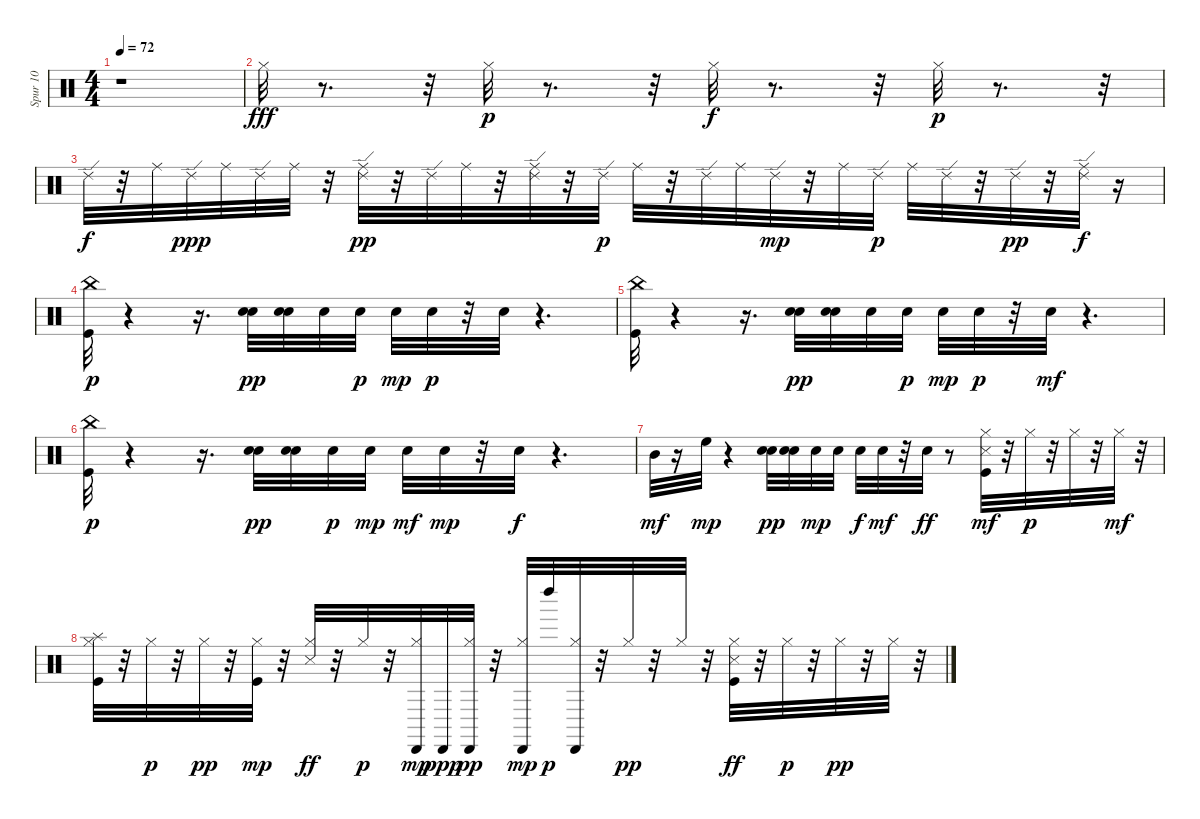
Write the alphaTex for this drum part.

\track ("Spur 10" "Spur 10") {instrument percussion}
\staff {score}
\articulation defaults
\ts (4 4)
\tempo 72
\clef neutral
\ks c
r.1{dy fff} |
"Hi-Hat (closed)".32 r.8{d} r.32 "Hi-Hat (closed)".32{dy p} r.8{d} r.32 "Hi-Hat (closed)".32{dy f} r.8{d} r.32 "Hi-Hat (closed)".32{dy p} r.8{d} r.32 |
"Ride (edge) 2".32{dy f} r.32 "Ride (middle)".32 "Ride (edge) 2".32{dy ppp} "Ride (middle)".32 "Ride (edge) 2".32 "Ride (middle)".32 r.32 ("Ride (edge) 2" "Ride (middle)").32{dy pp} r.32 "Ride (edge) 2".32 "Ride (middle)".32 r.32 ("Ride (edge) 2" "Ride (middle)").32 r.32 "Ride (edge) 2".32{dy p} "Ride (middle)".32 r.32 "Ride (edge) 2".32 "Ride (middle)".32 "Ride (edge) 2".32{dy mp} r.32 "Ride (middle)".32 "Ride (edge) 2".32{dy p} "Ride (middle)".32 "Ride (edge) 2".32 r.32 "Ride (edge) 2".32{dy pp} r.32 ("Ride (middle)" "Ride (edge) 2").32{dy f} r.16 |
("Kick (hit)" "China (hit)").32{dy p} r.4 r.16{d} ("Snare (hit) 2" "Snare (hit) 2").32{dy pp} ("Snare (hit) 2" "Snare (hit) 2").32 "Snare (hit) 2".32 "Snare (hit) 2".32{dy p} "Snare (hit) 2".32{dy mp} "Snare (hit) 2".32{dy p} r.32 "Snare (hit) 2".32 r.4{d} |
("Kick (hit)" "China (hit)").32 r.4 r.16{d} ("Snare (hit) 2" "Snare (hit) 2").32{dy pp} ("Snare (hit) 2" "Snare (hit) 2").32 "Snare (hit) 2".32 "Snare (hit) 2".32{dy p} "Snare (hit) 2".32{dy mp} "Snare (hit) 2".32{dy p} r.32 "Snare (hit) 2".32{dy mf} r.4{d} |
("Kick (hit)" "China (hit)").32{dy p} r.4 r.16{d} ("Snare (hit) 2" "Snare (hit) 2").32{dy pp} ("Snare (hit) 2" "Snare (hit) 2").32 "Snare (hit) 2".32{dy p} "Snare (hit) 2".32{dy mp} "Snare (hit) 2".32{dy mf} "Snare (hit) 2".32{dy mp} r.32 "Snare (hit) 2".32{dy f} r.4{d} |
"Mid Tom (hit)".32{dy mf} r.16 "High Floor Tom (hit)".32{dy mp} r.4 ("Snare (hit) 2" "Snare (hit) 2").32{dy pp} ("Snare (hit) 2" "Snare (hit) 2").32 "Snare (hit) 2".32{dy mp} "Snare (hit) 2".32 "Snare (hit) 2".32{dy f} "Snare (hit) 2".32{dy mf} r.32 "Snare (hit) 2".32{dy ff} r.8 ("Kick (hit)" "Snare (side stick) 3" "Hi-Hat (closed)").32{dy mf} r.32 "Hi-Hat (closed)".32{dy p} r.32 "Hi-Hat (closed)".32 r.32 "Hi-Hat (closed)".32{dy mf} r.32 |
("Kick (hit)" "Hi-Hat (closed)" "Splash (hit)").32 r.32 "Hi-Hat (closed)".32{dy p} r.32 "Hi-Hat (closed)".32{dy pp} r.32 ("Hi-Hat (closed)" "Kick (hit)").32{dy mp} r.32 ("Snare (side stick) 3" "Hi-Hat (closed)").32{dy ff} r.32 "Hi-Hat (closed)".32{dy p} r.32 ("Hi-Hat (closed)" "Cabasa (hit)").32{dy mp} "Cabasa (hit)".32{dy ppp} ("Hi-Hat (closed)" "Cabasa (hit)").32{dy pp} r.32 ("Cabasa (hit)" "Hi-Hat (closed)").32{dy mp} "Left Maraca (hit)".32{dy p} ("Cabasa (hit)" "Hi-Hat (closed)").32 r.32 "Hi-Hat (closed)".32{dy pp} r.32 "Hi-Hat (closed)".32 r.32 ("Snare (side stick) 3" "Kick (hit)" "Hi-Hat (closed)").32{dy ff} r.32 "Hi-Hat (closed)".32{dy p} r.32 "Hi-Hat (closed)".32{dy pp} r.32 "Hi-Hat (closed)".32 r.32
